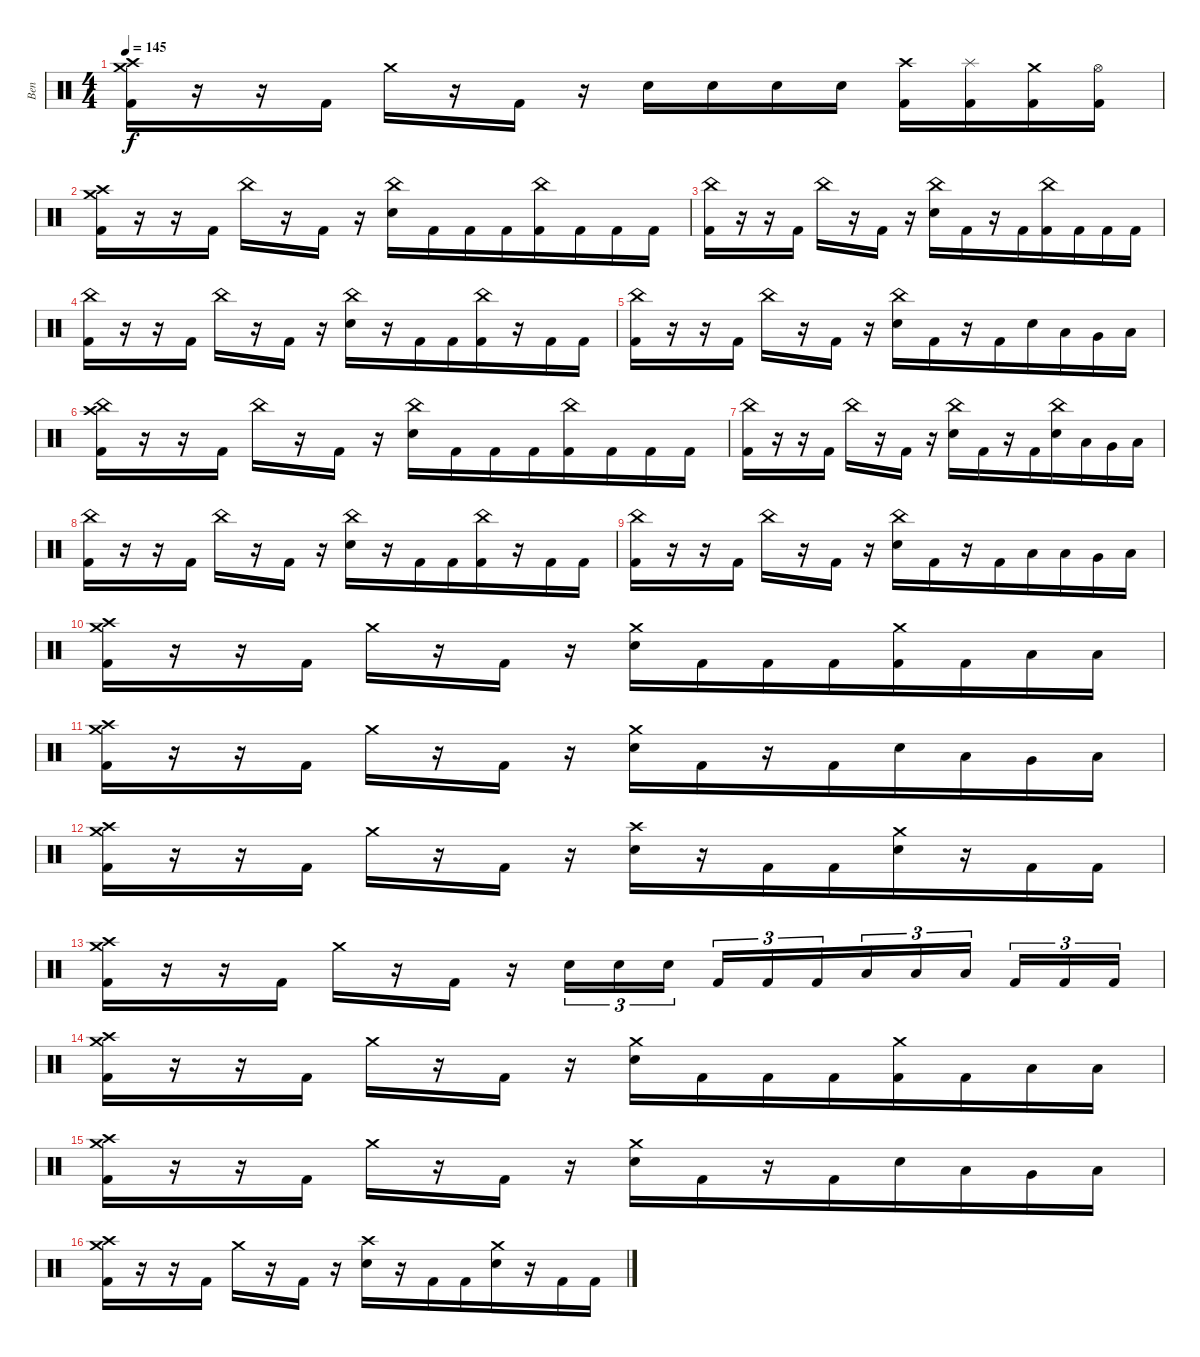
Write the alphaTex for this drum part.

\track ("Ben" "Ben") {instrument percussion}
\staff {score}
\articulation defaults
\ts (4 4)
\tempo 145
\clef neutral
\ks c
("Kick (hit) 2" "Crash medium (hit)" "Crash high (hit)").16{dy f} r.16{beam merge} r.16 "Kick (hit) 2".16 "Crash medium (hit)".16{beam merge} r.16{beam merge} "Kick (hit) 2".16 r.16{beam merge} "Electric Snare (hit)".16{beam merge} "Electric Snare (hit)".16 "Electric Snare (hit)".16{beam merge} "Electric Snare (hit)".16 ("Kick (hit) 2" "Crash high (hit)").16{beam merge} ("Kick (hit) 2" "Splash (hit)").16{beam merge} ("Kick (hit) 2" "Crash medium (hit)").16 ("Kick (hit) 2" "Hi-Hat (open)").16 |
("Kick (hit) 2" "Crash medium (hit)" "Crash high (hit)").16 r.16{beam merge} r.16 "Kick (hit) 2".16 "China (hit)".16{beam merge} r.16{beam merge} "Kick (hit) 2".16 r.16{beam merge} ("China (hit)" "Electric Snare (hit)").16 "Kick (hit) 2".16{beam merge} "Kick (hit) 2".16{beam merge} "Kick (hit) 2".16{beam merge} ("Kick (hit) 2" "China (hit)").16{beam merge} "Kick (hit) 2".16{beam merge} "Kick (hit) 2".16{beam merge} "Kick (hit) 2".16 |
("Kick (hit) 2" "China (hit)").16 r.16{beam merge} r.16 "Kick (hit) 2".16 "China (hit)".16{beam merge} r.16{beam merge} "Kick (hit) 2".16 r.16{beam merge} ("China (hit)" "Electric Snare (hit)").16 "Kick (hit) 2".16{beam merge} r.16{beam merge} "Kick (hit) 2".16{beam merge} ("Kick (hit) 2" "China (hit)").16{beam merge} "Kick (hit) 2".16{beam merge} "Kick (hit) 2".16{beam merge} "Kick (hit) 2".16 |
("Kick (hit) 2" "China (hit)").16 r.16{beam merge} r.16 "Kick (hit) 2".16 "China (hit)".16{beam merge} r.16{beam merge} "Kick (hit) 2".16 r.16{beam merge} ("China (hit)" "Electric Snare (hit)").16{beam merge} r.16{beam merge} "Kick (hit) 2".16{beam merge} "Kick (hit) 2".16{beam merge} ("Kick (hit) 2" "China (hit)").16{beam merge} r.16{beam merge} "Kick (hit) 2".16 "Kick (hit) 2".16 |
("Kick (hit) 2" "China (hit)").16 r.16{beam merge} r.16 "Kick (hit) 2".16 "China (hit)".16{beam merge} r.16{beam merge} "Kick (hit) 2".16 r.16{beam merge} ("China (hit)" "Electric Snare (hit)").16 "Kick (hit) 2".16{beam merge} r.16{beam merge} "Kick (hit) 2".16{beam merge} "Electric Snare (hit)".16{beam merge} "Low Tom (hit)".16{beam merge} "Very Low Tom (hit)".16{beam merge} "Low Floor Tom (hit)".16 |
("Kick (hit) 2" "China (hit)" "Crash high (hit)").16 r.16{beam merge} r.16 "Kick (hit) 2".16 "China (hit)".16{beam merge} r.16{beam merge} "Kick (hit) 2".16 r.16{beam merge} ("China (hit)" "Electric Snare (hit)").16 "Kick (hit) 2".16{beam merge} "Kick (hit) 2".16{beam merge} "Kick (hit) 2".16{beam merge} ("Kick (hit) 2" "China (hit)").16{beam merge} "Kick (hit) 2".16{beam merge} "Kick (hit) 2".16{beam merge} "Kick (hit) 2".16 |
("Kick (hit) 2" "China (hit)").16 r.16{beam merge} r.16 "Kick (hit) 2".16 "China (hit)".16{beam merge} r.16{beam merge} "Kick (hit) 2".16 r.16{beam merge} ("China (hit)" "Electric Snare (hit)").16 "Kick (hit) 2".16{beam merge} r.16{beam merge} "Kick (hit) 2".16{beam merge} ("Electric Snare (hit)" "China (hit)").16{beam merge} "Low Tom (hit)".16{beam merge} "Very Low Tom (hit)".16{beam merge} "Low Floor Tom (hit)".16 |
("Kick (hit) 2" "China (hit)").16 r.16{beam merge} r.16 "Kick (hit) 2".16 "China (hit)".16{beam merge} r.16{beam merge} "Kick (hit) 2".16 r.16{beam merge} ("China (hit)" "Electric Snare (hit)").16{beam merge} r.16{beam merge} "Kick (hit) 2".16{beam merge} "Kick (hit) 2".16{beam merge} ("Kick (hit) 2" "China (hit)").16{beam merge} r.16{beam merge} "Kick (hit) 2".16 "Kick (hit) 2".16 |
("Kick (hit) 2" "China (hit)").16 r.16{beam merge} r.16 "Kick (hit) 2".16 "China (hit)".16{beam merge} r.16{beam merge} "Kick (hit) 2".16 r.16{beam merge} ("China (hit)" "Electric Snare (hit)").16 "Kick (hit) 2".16{beam merge} r.16{beam merge} "Kick (hit) 2".16{beam merge} "Low Tom (hit)".16{beam merge} "Low Tom (hit)".16{beam merge} "Very Low Tom (hit)".16{beam merge} "Low Floor Tom (hit)".16 |
("Kick (hit) 2" "Crash medium (hit)" "Crash high (hit)").16 r.16{beam merge} r.16 "Kick (hit) 2".16 "Crash medium (hit)".16{beam merge} r.16{beam merge} "Kick (hit) 2".16 r.16{beam merge} ("Crash medium (hit)" "Electric Snare (hit)").16 "Kick (hit) 2".16{beam merge} "Kick (hit) 2".16{beam merge} "Kick (hit) 2".16{beam merge} ("Kick (hit) 2" "Crash medium (hit)").16{beam merge} "Kick (hit) 2".16{beam merge} "Low Tom (hit)".16{beam merge} "Low Tom (hit)".16 |
("Kick (hit) 2" "Crash medium (hit)" "Crash high (hit)").16 r.16{beam merge} r.16 "Kick (hit) 2".16 "Crash medium (hit)".16{beam merge} r.16{beam merge} "Kick (hit) 2".16 r.16{beam merge} ("Crash medium (hit)" "Electric Snare (hit)").16 "Kick (hit) 2".16{beam merge} r.16{beam merge} "Kick (hit) 2".16{beam merge} "Electric Snare (hit)".16{beam merge} "Low Tom (hit)".16{beam merge} "Very Low Tom (hit)".16{beam merge} "Low Floor Tom (hit)".16 |
("Kick (hit) 2" "Crash medium (hit)" "Crash high (hit)").16 r.16{beam merge} r.16 "Kick (hit) 2".16 "Crash medium (hit)".16{beam merge} r.16{beam merge} "Kick (hit) 2".16 r.16{beam merge} ("Crash high (hit)" "Electric Snare (hit)").16{beam merge} r.16{beam merge} "Kick (hit) 2".16{beam merge} "Kick (hit) 2".16{beam merge} ("Electric Snare (hit)" "Crash medium (hit)").16{beam merge} r.16{beam merge} "Kick (hit) 2".16 "Kick (hit) 2".16 |
("Kick (hit) 2" "Crash medium (hit)" "Crash high (hit)").16 r.16{beam merge} r.16 "Kick (hit) 2".16 "Crash medium (hit)".16{beam merge} r.16{beam merge} "Kick (hit) 2".16 r.16{beam merge} "Electric Snare (hit)".16{tu (3 2) beam merge} "Electric Snare (hit)".16{tu (3 2)} "Electric Snare (hit)".16{tu (3 2) beam splitsecondary} "Kick (hit) 2".16{tu (3 2)} "Kick (hit) 2".16{tu (3 2) beam merge} "Kick (hit) 2".16{tu (3 2) beam merge} "Low Tom (hit)".16{tu (3 2)} "Low Tom (hit)".16{tu (3 2)} "Low Tom (hit)".16{tu (3 2) beam splitsecondary} "Kick (hit) 2".16{tu (3 2) beam merge} "Kick (hit) 2".16{tu (3 2) beam merge} "Kick (hit) 2".16{tu (3 2)} |
("Kick (hit) 2" "Crash medium (hit)" "Crash high (hit)").16 r.16{beam merge} r.16 "Kick (hit) 2".16 "Crash medium (hit)".16{beam merge} r.16{beam merge} "Kick (hit) 2".16 r.16{beam merge} ("Crash medium (hit)" "Electric Snare (hit)").16 "Kick (hit) 2".16{beam merge} "Kick (hit) 2".16{beam merge} "Kick (hit) 2".16{beam merge} ("Kick (hit) 2" "Crash medium (hit)").16{beam merge} "Kick (hit) 2".16{beam merge} "Low Tom (hit)".16{beam merge} "Low Tom (hit)".16 |
("Kick (hit) 2" "Crash medium (hit)" "Crash high (hit)").16 r.16{beam merge} r.16 "Kick (hit) 2".16 "Crash medium (hit)".16{beam merge} r.16{beam merge} "Kick (hit) 2".16 r.16{beam merge} ("Crash medium (hit)" "Electric Snare (hit)").16 "Kick (hit) 2".16{beam merge} r.16{beam merge} "Kick (hit) 2".16{beam merge} "Electric Snare (hit)".16{beam merge} "Low Tom (hit)".16{beam merge} "Very Low Tom (hit)".16{beam merge} "Low Floor Tom (hit)".16 |
("Kick (hit) 2" "Crash medium (hit)" "Crash high (hit)").16 r.16{beam merge} r.16 "Kick (hit) 2".16 "Crash medium (hit)".16{beam merge} r.16{beam merge} "Kick (hit) 2".16 r.16{beam merge} ("Crash high (hit)" "Electric Snare (hit)").16{beam merge} r.16{beam merge} "Kick (hit) 2".16{beam merge} "Kick (hit) 2".16{beam merge} ("Electric Snare (hit)" "Crash medium (hit)").16{beam merge} r.16{beam merge} "Kick (hit) 2".16 "Kick (hit) 2".16
